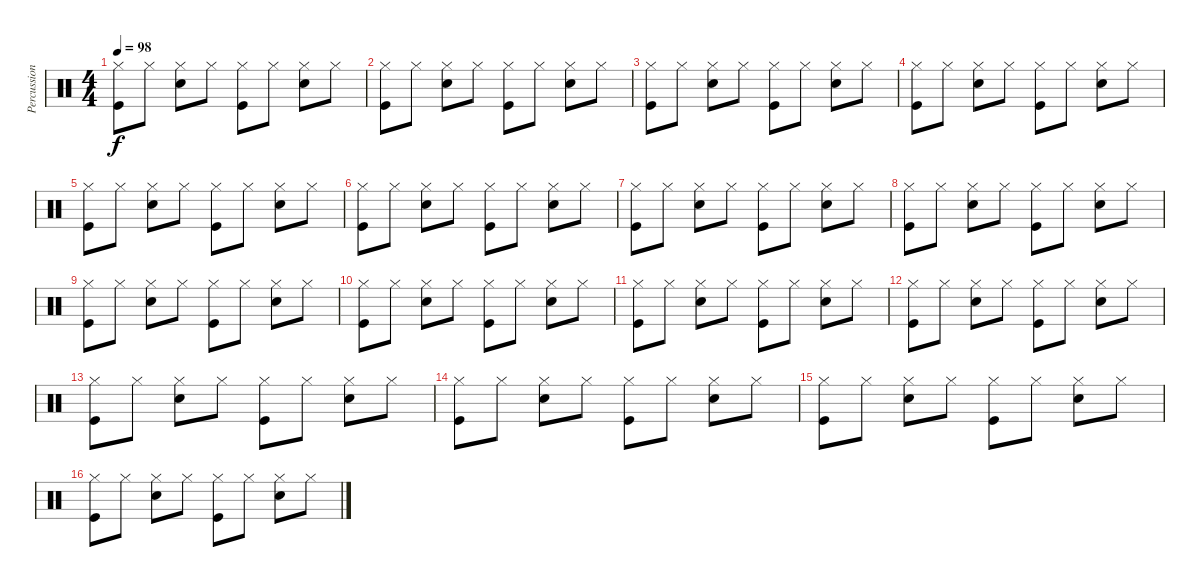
\track ("Percussions" "Percussion") {instrument percussion}
\staff {score}
\articulation defaults
\ts (4 4)
\tempo 98
\clef neutral
\ks c
("Hi-Hat (closed)" "Kick (hit)").8{dy f} "Hi-Hat (closed)".8 ("Hi-Hat (closed)" "Snare (hit) 2").8 "Hi-Hat (closed)".8 ("Hi-Hat (closed)" "Kick (hit)").8 "Hi-Hat (closed)".8 ("Hi-Hat (closed)" "Snare (hit) 2").8 "Hi-Hat (closed)".8 |
("Hi-Hat (closed)" "Kick (hit)").8 "Hi-Hat (closed)".8 ("Hi-Hat (closed)" "Snare (hit) 2").8 "Hi-Hat (closed)".8 ("Hi-Hat (closed)" "Kick (hit)").8 "Hi-Hat (closed)".8 ("Hi-Hat (closed)" "Snare (hit) 2").8 "Hi-Hat (closed)".8 |
("Hi-Hat (closed)" "Kick (hit)").8 "Hi-Hat (closed)".8 ("Hi-Hat (closed)" "Snare (hit) 2").8 "Hi-Hat (closed)".8 ("Hi-Hat (closed)" "Kick (hit)").8 "Hi-Hat (closed)".8 ("Hi-Hat (closed)" "Snare (hit) 2").8 "Hi-Hat (closed)".8 |
("Hi-Hat (closed)" "Kick (hit)").8 "Hi-Hat (closed)".8 ("Hi-Hat (closed)" "Snare (hit) 2").8 "Hi-Hat (closed)".8 ("Hi-Hat (closed)" "Kick (hit)").8 "Hi-Hat (closed)".8 ("Hi-Hat (closed)" "Snare (hit) 2").8 "Hi-Hat (closed)".8 |
("Hi-Hat (closed)" "Kick (hit)").8 "Hi-Hat (closed)".8 ("Hi-Hat (closed)" "Snare (hit) 2").8 "Hi-Hat (closed)".8 ("Hi-Hat (closed)" "Kick (hit)").8 "Hi-Hat (closed)".8 ("Hi-Hat (closed)" "Snare (hit) 2").8 "Hi-Hat (closed)".8 |
("Hi-Hat (closed)" "Kick (hit)").8 "Hi-Hat (closed)".8 ("Hi-Hat (closed)" "Snare (hit) 2").8 "Hi-Hat (closed)".8 ("Hi-Hat (closed)" "Kick (hit)").8 "Hi-Hat (closed)".8 ("Hi-Hat (closed)" "Snare (hit) 2").8 "Hi-Hat (closed)".8 |
("Hi-Hat (closed)" "Kick (hit)").8 "Hi-Hat (closed)".8 ("Hi-Hat (closed)" "Snare (hit) 2").8 "Hi-Hat (closed)".8 ("Hi-Hat (closed)" "Kick (hit)").8 "Hi-Hat (closed)".8 ("Hi-Hat (closed)" "Snare (hit) 2").8 "Hi-Hat (closed)".8 |
("Hi-Hat (closed)" "Kick (hit)").8 "Hi-Hat (closed)".8 ("Hi-Hat (closed)" "Snare (hit) 2").8 "Hi-Hat (closed)".8 ("Hi-Hat (closed)" "Kick (hit)").8 "Hi-Hat (closed)".8 ("Hi-Hat (closed)" "Snare (hit) 2").8 "Hi-Hat (closed)".8 |
("Hi-Hat (closed)" "Kick (hit)").8 "Hi-Hat (closed)".8 ("Hi-Hat (closed)" "Snare (hit) 2").8 "Hi-Hat (closed)".8 ("Hi-Hat (closed)" "Kick (hit)").8 "Hi-Hat (closed)".8 ("Hi-Hat (closed)" "Snare (hit) 2").8 "Hi-Hat (closed)".8 |
("Hi-Hat (closed)" "Kick (hit)").8 "Hi-Hat (closed)".8 ("Hi-Hat (closed)" "Snare (hit) 2").8 "Hi-Hat (closed)".8 ("Hi-Hat (closed)" "Kick (hit)").8 "Hi-Hat (closed)".8 ("Hi-Hat (closed)" "Snare (hit) 2").8 "Hi-Hat (closed)".8 |
("Hi-Hat (closed)" "Kick (hit)").8 "Hi-Hat (closed)".8 ("Hi-Hat (closed)" "Snare (hit) 2").8 "Hi-Hat (closed)".8 ("Hi-Hat (closed)" "Kick (hit)").8 "Hi-Hat (closed)".8 ("Hi-Hat (closed)" "Snare (hit) 2").8 "Hi-Hat (closed)".8 |
("Hi-Hat (closed)" "Kick (hit)").8 "Hi-Hat (closed)".8 ("Hi-Hat (closed)" "Snare (hit) 2").8 "Hi-Hat (closed)".8 ("Hi-Hat (closed)" "Kick (hit)").8 "Hi-Hat (closed)".8 ("Hi-Hat (closed)" "Snare (hit) 2").8 "Hi-Hat (closed)".8 |
("Hi-Hat (closed)" "Kick (hit)").8 "Hi-Hat (closed)".8 ("Hi-Hat (closed)" "Snare (hit) 2").8 "Hi-Hat (closed)".8 ("Hi-Hat (closed)" "Kick (hit)").8 "Hi-Hat (closed)".8 ("Hi-Hat (closed)" "Snare (hit) 2").8 "Hi-Hat (closed)".8 |
("Hi-Hat (closed)" "Kick (hit)").8 "Hi-Hat (closed)".8 ("Hi-Hat (closed)" "Snare (hit) 2").8 "Hi-Hat (closed)".8 ("Hi-Hat (closed)" "Kick (hit)").8 "Hi-Hat (closed)".8 ("Hi-Hat (closed)" "Snare (hit) 2").8 "Hi-Hat (closed)".8 |
("Hi-Hat (closed)" "Kick (hit)").8 "Hi-Hat (closed)".8 ("Hi-Hat (closed)" "Snare (hit) 2").8 "Hi-Hat (closed)".8 ("Hi-Hat (closed)" "Kick (hit)").8 "Hi-Hat (closed)".8 ("Hi-Hat (closed)" "Snare (hit) 2").8 "Hi-Hat (closed)".8 |
("Hi-Hat (closed)" "Kick (hit)").8 "Hi-Hat (closed)".8 ("Hi-Hat (closed)" "Snare (hit) 2").8 "Hi-Hat (closed)".8 ("Hi-Hat (closed)" "Kick (hit)").8 "Hi-Hat (closed)".8 ("Hi-Hat (closed)" "Snare (hit) 2").8 "Hi-Hat (closed)".8
